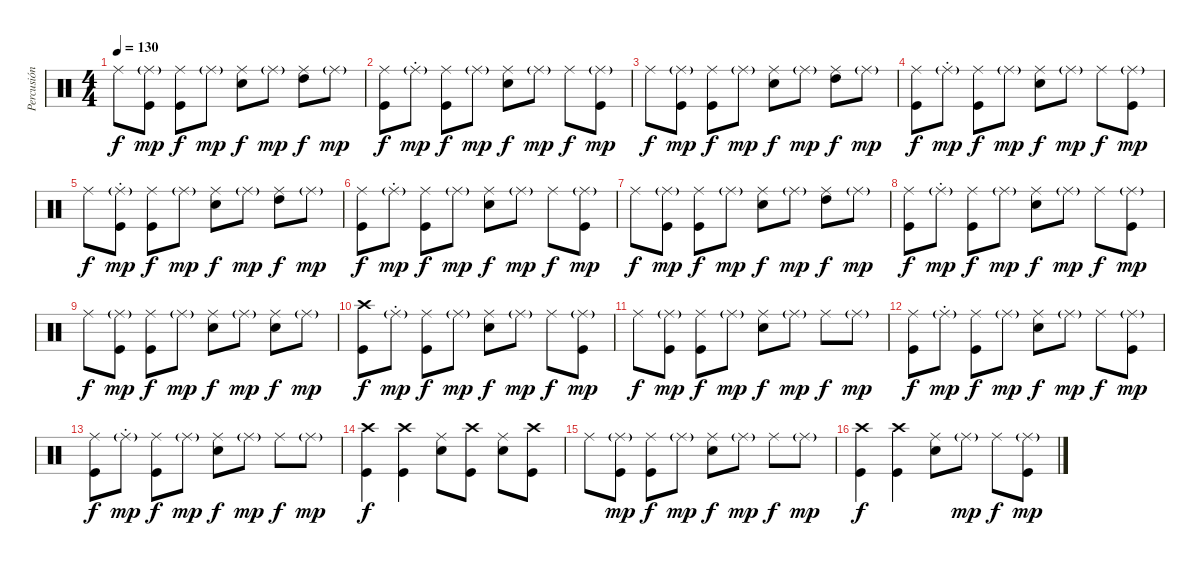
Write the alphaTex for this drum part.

\track ("Percusión" "Percusión") {instrument percussion}
\staff {score}
\articulation defaults
\ts (4 4)
\tempo 130
\clef neutral
\ks c "Ride (middle)".8{dy f}
("Ride (middle)"{g} "Kick (hit)").8{dy mp} ("Ride (middle)" "Kick (hit)").8{dy f} "Ride (middle)"{g}.8{dy mp} ("Ride (middle)" "Electric Snare (hit)").8{dy f} "Ride (middle)"{g}.8{dy mp} ("High Tom (hit)" "Ride (middle)").8{dy f} "Ride (middle)"{g}.8{dy mp} |
("Ride (middle)" "Kick (hit)").8{dy f} "Ride (middle)"{g st}.8{dy mp} ("Ride (middle)" "Kick (hit)").8{dy f} "Ride (middle)"{g}.8{dy mp} ("Ride (middle)" "Electric Snare (hit)").8{dy f} "Ride (middle)"{g}.8{dy mp} "Ride (middle)".8{dy f} ("Ride (middle)"{g} "Kick (hit)").8{dy mp} |
"Ride (middle)".8{dy f} ("Ride (middle)"{g} "Kick (hit)").8{dy mp} ("Ride (middle)" "Kick (hit)").8{dy f} "Ride (middle)"{g}.8{dy mp} ("Ride (middle)" "Electric Snare (hit)").8{dy f} "Ride (middle)"{g}.8{dy mp} ("High Tom (hit)" "Ride (middle)").8{dy f} "Ride (middle)"{g}.8{dy mp} |
("Ride (middle)" "Kick (hit)").8{dy f} "Ride (middle)"{g st}.8{dy mp} ("Ride (middle)" "Kick (hit)").8{dy f} "Ride (middle)"{g}.8{dy mp} ("Ride (middle)" "Electric Snare (hit)").8{dy f} "Ride (middle)"{g}.8{dy mp} "Ride (middle)".8{dy f} ("Ride (middle)"{g} "Kick (hit)").8{dy mp} |
"Ride (middle)".8{dy f} ("Ride (middle)"{g st} "Kick (hit)").8{dy mp} ("Ride (middle)" "Kick (hit)").8{dy f} "Ride (middle)"{g}.8{dy mp} ("Ride (middle)" "Electric Snare (hit)").8{dy f} "Ride (middle)"{g}.8{dy mp} ("High Tom (hit)" "Ride (middle)").8{dy f} "Ride (middle)"{g}.8{dy mp} |
("Ride (middle)" "Kick (hit)").8{dy f} "Ride (middle)"{g st}.8{dy mp} ("Ride (middle)" "Kick (hit)").8{dy f} "Ride (middle)"{g}.8{dy mp} ("Ride (middle)" "Electric Snare (hit)").8{dy f} "Ride (middle)"{g}.8{dy mp} "Ride (middle)".8{dy f} ("Ride (middle)"{g} "Kick (hit)").8{dy mp} |
"Ride (middle)".8{dy f} ("Ride (middle)"{g} "Kick (hit)").8{dy mp} ("Ride (middle)" "Kick (hit)").8{dy f} "Ride (middle)"{g}.8{dy mp} ("Ride (middle)" "Electric Snare (hit)").8{dy f} "Ride (middle)"{g}.8{dy mp} ("High Tom (hit)" "Ride (middle)").8{dy f} "Ride (middle)"{g}.8{dy mp} |
("Ride (middle)" "Kick (hit)").8{dy f} "Ride (middle)"{g st}.8{dy mp} ("Ride (middle)" "Kick (hit)").8{dy f} "Ride (middle)"{g}.8{dy mp} ("Ride (middle)" "Electric Snare (hit)").8{dy f} "Ride (middle)"{g}.8{dy mp} "Ride (middle)".8{dy f} ("Ride (middle)"{g} "Kick (hit)").8{dy mp} |
"Ride (middle)".8{dy f} ("Ride (middle)"{g} "Kick (hit)").8{dy mp} ("Ride (middle)" "Kick (hit)").8{dy f} "Ride (middle)"{g}.8{dy mp} ("Ride (middle)" "Electric Snare (hit)").8{dy f} "Ride (middle)"{g}.8{dy mp} ("Ride (middle)" "Electric Snare (hit)").8{dy f} "Ride (middle)"{g}.8{dy mp} |
("Crash high (hit)" "Kick (hit)").8{dy f} "Ride (middle)"{g st}.8{dy mp} ("Ride (middle)" "Kick (hit)").8{dy f} "Ride (middle)"{g}.8{dy mp} ("Ride (middle)" "Electric Snare (hit)").8{dy f} "Ride (middle)"{g}.8{dy mp} "Ride (middle)".8{dy f} ("Ride (middle)"{g} "Kick (hit)").8{dy mp} |
"Ride (middle)".8{dy f} ("Ride (middle)"{g} "Kick (hit)").8{dy mp} ("Ride (middle)" "Kick (hit)").8{dy f} "Ride (middle)"{g}.8{dy mp} ("Ride (middle)" "Electric Snare (hit)").8{dy f} "Ride (middle)"{g}.8{dy mp} "Ride (middle)".8{dy f} "Ride (middle)"{g}.8{dy mp} |
("Ride (middle)" "Kick (hit)").8{dy f} "Ride (middle)"{g st}.8{dy mp} ("Ride (middle)" "Kick (hit)").8{dy f} "Ride (middle)"{g}.8{dy mp} ("Ride (middle)" "Electric Snare (hit)").8{dy f} "Ride (middle)"{g}.8{dy mp} "Ride (middle)".8{dy f} ("Ride (middle)"{g} "Kick (hit)").8{dy mp} |
("Ride (middle)" "Kick (hit)").8{dy f} "Ride (middle)"{g st}.8{dy mp} ("Ride (middle)" "Kick (hit)").8{dy f} "Ride (middle)"{g}.8{dy mp} ("Ride (middle)" "Electric Snare (hit)").8{dy f} "Ride (middle)"{g}.8{dy mp} "Ride (middle)".8{dy f} "Ride (middle)"{g}.8{dy mp} |
("Crash high (hit)" "Kick (hit)").4{dy f} ("Crash high (hit)" "Kick (hit)").4 ("Ride (middle)" "Electric Snare (hit)").8 ("Crash high (hit)" "Kick (hit)").8 ("Ride (middle)" "Electric Snare (hit)").8 ("Crash high (hit)" "Kick (hit)").8 |
"Ride (middle)".8 ("Ride (middle)"{g} "Kick (hit)").8{dy mp} ("Ride (middle)" "Kick (hit)").8{dy f} "Ride (middle)"{g}.8{dy mp} ("Ride (middle)" "Electric Snare (hit)").8{dy f} "Ride (middle)"{g}.8{dy mp} "Ride (middle)".8{dy f} "Ride (middle)"{g}.8{dy mp} |
("Crash high (hit)" "Kick (hit)").4{dy f} ("Crash high (hit)" "Kick (hit)").4 ("Ride (middle)" "Electric Snare (hit)").8 "Ride (middle)"{g}.8{dy mp} "Ride (middle)".8{dy f} ("Ride (middle)"{g} "Kick (hit)").8{dy mp}
